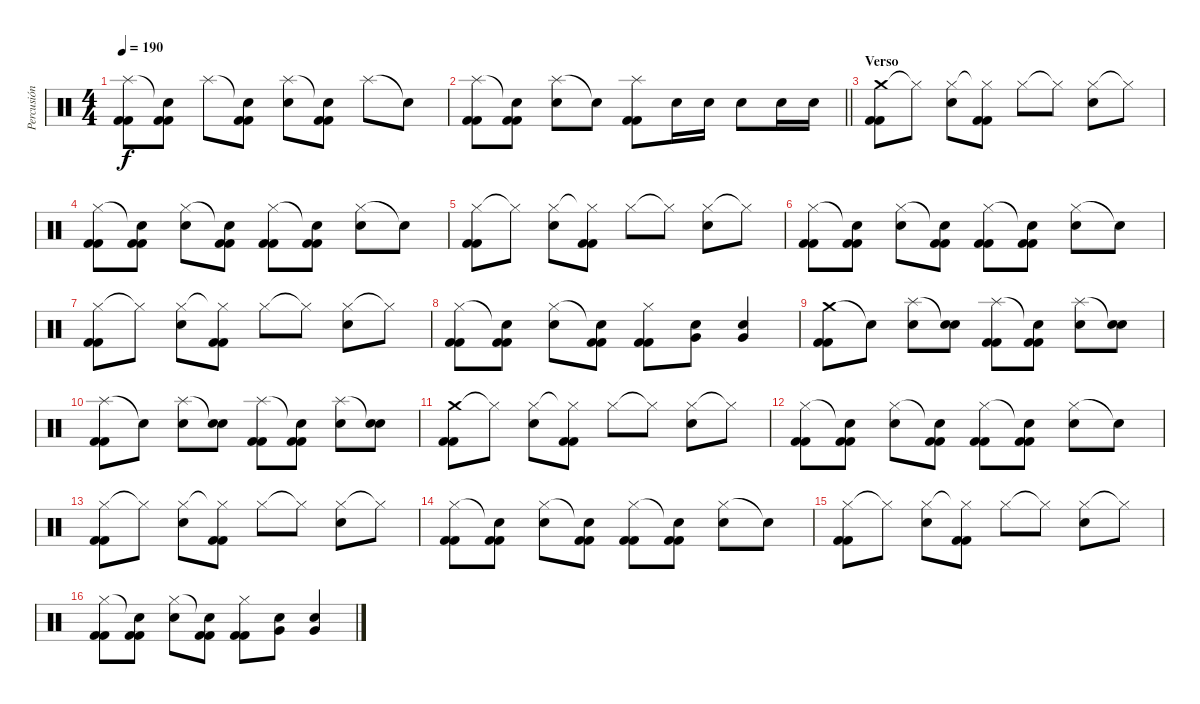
\track ("Percusión" "Percusión") {instrument percussion}
\staff {score}
\articulation defaults
\ts (4 4)
\tempo 190
\clef neutral
\ks c
("Splash (hit)" "Kick (hit) 2" "Kick (hit) 2").8{dy f} ("Snare (hit)"{t} "Kick (hit) 2" "Kick (hit) 2").8 "Splash (hit)".8 ("Snare (hit)"{t} "Kick (hit) 2" "Kick (hit) 2").8 ("Splash (hit)" "Electric Snare (hit)").8 ("Snare (hit)"{t} "Kick (hit) 2" "Kick (hit) 2").8 "Splash (hit)".8 "Snare (hit)"{t}.8 |
\barLineRight lightlight
("Splash (hit)" "Kick (hit) 2" "Kick (hit) 2").8 ("Snare (hit)"{t} "Kick (hit) 2" "Kick (hit) 2").8 ("Splash (hit)" "Electric Snare (hit)").8 "Snare (hit)"{t}.8 ("Splash (hit)" "Kick (hit) 2" "Kick (hit) 2").8 "Electric Snare (hit)".16 "Electric Snare (hit)".16 "Electric Snare (hit)".8 "Electric Snare (hit)".16 "Electric Snare (hit)".16 |
\section ("" "Verso")
("Crash medium (hit)" "Kick (hit) 2" "Kick (hit) 2").8 "Hi-Hat (closed)"{t}.8 ("Hi-Hat (closed)" "Electric Snare (hit)").8 ("Hi-Hat (closed)"{t} "Kick (hit) 2" "Kick (hit) 2").8 "Hi-Hat (closed)".8 "Hi-Hat (closed)"{t}.8 ("Hi-Hat (closed)" "Electric Snare (hit)").8 "Hi-Hat (closed)"{t}.8 |
("Hi-Hat (closed)" "Kick (hit) 2" "Kick (hit) 2").8 ("Snare (hit)"{t} "Kick (hit) 2" "Kick (hit) 2").8 ("Hi-Hat (closed)" "Electric Snare (hit)").8 ("Snare (hit)"{t} "Kick (hit) 2" "Kick (hit) 2").8 ("Hi-Hat (closed)" "Kick (hit) 2" "Kick (hit) 2").8 ("Snare (hit)"{t} "Kick (hit) 2" "Kick (hit) 2").8 ("Hi-Hat (closed)" "Electric Snare (hit)").8 "Snare (hit)"{t}.8 |
("Hi-Hat (closed)" "Kick (hit) 2" "Kick (hit) 2").8 "Hi-Hat (closed)"{t}.8 ("Hi-Hat (closed)" "Electric Snare (hit)").8 ("Hi-Hat (closed)"{t} "Kick (hit) 2" "Kick (hit) 2").8 "Hi-Hat (closed)".8 "Hi-Hat (closed)"{t}.8 ("Hi-Hat (closed)" "Electric Snare (hit)").8 "Hi-Hat (closed)"{t}.8 |
("Hi-Hat (closed)" "Kick (hit) 2" "Kick (hit) 2").8 ("Snare (hit)"{t} "Kick (hit) 2" "Kick (hit) 2").8 ("Hi-Hat (closed)" "Electric Snare (hit)").8 ("Snare (hit)"{t} "Kick (hit) 2" "Kick (hit) 2").8 ("Hi-Hat (closed)" "Kick (hit) 2" "Kick (hit) 2").8 ("Snare (hit)"{t} "Kick (hit) 2" "Kick (hit) 2").8 ("Hi-Hat (closed)" "Electric Snare (hit)").8 "Snare (hit)"{t}.8 |
("Hi-Hat (closed)" "Kick (hit) 2" "Kick (hit) 2").8 "Hi-Hat (closed)"{t}.8 ("Hi-Hat (closed)" "Electric Snare (hit)").8 ("Hi-Hat (closed)"{t} "Kick (hit) 2" "Kick (hit) 2").8 "Hi-Hat (closed)".8 "Hi-Hat (closed)"{t}.8 ("Hi-Hat (closed)" "Electric Snare (hit)").8 "Hi-Hat (closed)"{t}.8 |
("Hi-Hat (closed)" "Kick (hit) 2" "Kick (hit) 2").8 ("Snare (hit)"{t} "Kick (hit) 2" "Kick (hit) 2").8 ("Hi-Hat (closed)" "Electric Snare (hit)").8 ("Snare (hit)"{t} "Kick (hit) 2" "Kick (hit) 2").8 ("Hi-Hat (closed)" "Kick (hit) 2" "Kick (hit) 2").8 ("Very Low Tom (hit)" "Electric Snare (hit)").8 ("Very Low Tom (hit)" "Electric Snare (hit)").4 |
("Crash medium (hit)" "Kick (hit) 2" "Kick (hit) 2").8 "Snare (hit)"{t}.8 ("Splash (hit)" "Electric Snare (hit)").8 ("Snare (hit)"{t} "Electric Snare (hit)").8 ("Splash (hit)" "Kick (hit) 2" "Kick (hit) 2").8 ("Snare (hit)"{t} "Kick (hit) 2" "Kick (hit) 2").8 ("Splash (hit)" "Electric Snare (hit)").8 ("Snare (hit)"{t} "Electric Snare (hit)").8 |
("Splash (hit)" "Kick (hit) 2" "Kick (hit) 2").8 "Snare (hit)"{t}.8 ("Splash (hit)" "Electric Snare (hit)").8 ("Snare (hit)"{t} "Electric Snare (hit)").8 ("Splash (hit)" "Kick (hit) 2" "Kick (hit) 2").8 ("Snare (hit)"{t} "Kick (hit) 2" "Kick (hit) 2").8 ("Splash (hit)" "Electric Snare (hit)").8 ("Snare (hit)"{t} "Electric Snare (hit)").8 |
("Crash medium (hit)" "Kick (hit) 2" "Kick (hit) 2").8 "Hi-Hat (closed)"{t}.8 ("Hi-Hat (closed)" "Electric Snare (hit)").8 ("Hi-Hat (closed)"{t} "Kick (hit) 2" "Kick (hit) 2").8 "Hi-Hat (closed)".8 "Hi-Hat (closed)"{t}.8 ("Hi-Hat (closed)" "Electric Snare (hit)").8 "Hi-Hat (closed)"{t}.8 |
("Hi-Hat (closed)" "Kick (hit) 2" "Kick (hit) 2").8 ("Snare (hit)"{t} "Kick (hit) 2" "Kick (hit) 2").8 ("Hi-Hat (closed)" "Electric Snare (hit)").8 ("Snare (hit)"{t} "Kick (hit) 2" "Kick (hit) 2").8 ("Hi-Hat (closed)" "Kick (hit) 2" "Kick (hit) 2").8 ("Snare (hit)"{t} "Kick (hit) 2" "Kick (hit) 2").8 ("Hi-Hat (closed)" "Electric Snare (hit)").8 "Snare (hit)"{t}.8 |
("Hi-Hat (closed)" "Kick (hit) 2" "Kick (hit) 2").8 "Hi-Hat (closed)"{t}.8 ("Hi-Hat (closed)" "Electric Snare (hit)").8 ("Hi-Hat (closed)"{t} "Kick (hit) 2" "Kick (hit) 2").8 "Hi-Hat (closed)".8 "Hi-Hat (closed)"{t}.8 ("Hi-Hat (closed)" "Electric Snare (hit)").8 "Hi-Hat (closed)"{t}.8 |
("Hi-Hat (closed)" "Kick (hit) 2" "Kick (hit) 2").8 ("Snare (hit)"{t} "Kick (hit) 2" "Kick (hit) 2").8 ("Hi-Hat (closed)" "Electric Snare (hit)").8 ("Snare (hit)"{t} "Kick (hit) 2" "Kick (hit) 2").8 ("Hi-Hat (closed)" "Kick (hit) 2" "Kick (hit) 2").8 ("Snare (hit)"{t} "Kick (hit) 2" "Kick (hit) 2").8 ("Hi-Hat (closed)" "Electric Snare (hit)").8 "Snare (hit)"{t}.8 |
("Hi-Hat (closed)" "Kick (hit) 2" "Kick (hit) 2").8 "Hi-Hat (closed)"{t}.8 ("Hi-Hat (closed)" "Electric Snare (hit)").8 ("Hi-Hat (closed)"{t} "Kick (hit) 2" "Kick (hit) 2").8 "Hi-Hat (closed)".8 "Hi-Hat (closed)"{t}.8 ("Hi-Hat (closed)" "Electric Snare (hit)").8 "Hi-Hat (closed)"{t}.8 |
("Hi-Hat (closed)" "Kick (hit) 2" "Kick (hit) 2").8 ("Snare (hit)"{t} "Kick (hit) 2" "Kick (hit) 2").8 ("Hi-Hat (closed)" "Electric Snare (hit)").8 ("Snare (hit)"{t} "Kick (hit) 2" "Kick (hit) 2").8 ("Hi-Hat (closed)" "Kick (hit) 2" "Kick (hit) 2").8 ("Very Low Tom (hit)" "Electric Snare (hit)").8 ("Very Low Tom (hit)" "Electric Snare (hit)").4
